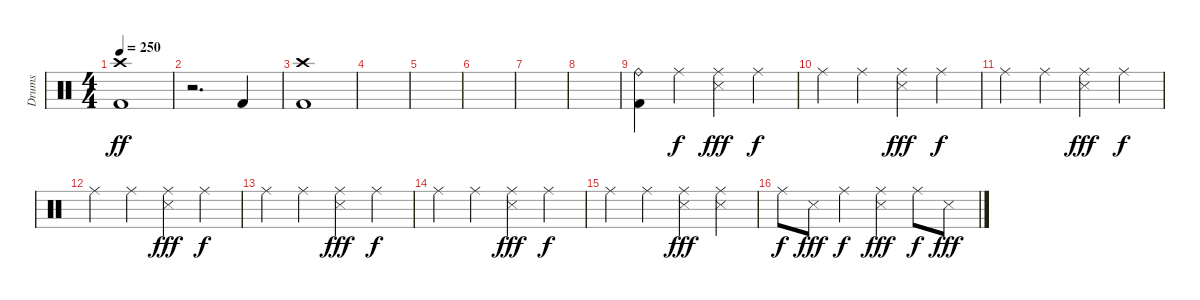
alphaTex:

\track ("Drums" "Drums") {instrument percussion}
\staff {score}
\articulation defaults
\ts (4 4)
\tempo 250
\clef neutral
\ks c
("Crash high (hit)" "Kick (hit) 2").1{dy ff} |
r.2{d} "Kick (hit) 2".4 |
("Crash high (hit)" "Kick (hit) 2").1 |
|
|
|
|
|
("Ride (bell)" "Kick (hit) 2").4 "Ride (middle)".4{dy f} ("Ride (middle)" "Snare (side stick) 3").4{dy fff} "Ride (middle)".4{dy f} |
"Ride (middle)".4 "Ride (middle)".4 ("Ride (middle)" "Snare (side stick) 3").4{dy fff} "Ride (middle)".4{dy f} |
"Ride (middle)".4 "Ride (middle)".4 ("Ride (middle)" "Snare (side stick) 3").4{dy fff} "Ride (middle)".4{dy f} |
"Ride (middle)".4 "Ride (middle)".4 ("Ride (middle)" "Snare (side stick) 3").4{dy fff} "Ride (middle)".4{dy f} |
"Ride (middle)".4 "Ride (middle)".4 ("Ride (middle)" "Snare (side stick) 3").4{dy fff} "Ride (middle)".4{dy f} |
"Ride (middle)".4 "Ride (middle)".4 ("Ride (middle)" "Snare (side stick) 3").4{dy fff} "Ride (middle)".4{dy f} |
"Ride (middle)".4 "Ride (middle)".4 ("Ride (middle)" "Snare (side stick) 3").4{dy fff} ("Ride (middle)" "Snare (side stick) 3").4 |
"Ride (middle)".8{dy f} "Snare (side stick) 3".8{dy fff} "Ride (middle)".4{dy f} ("Ride (middle)" "Snare (side stick) 3").4{dy fff} "Ride (middle)".8{dy f} "Snare (side stick) 3".8{dy fff}
